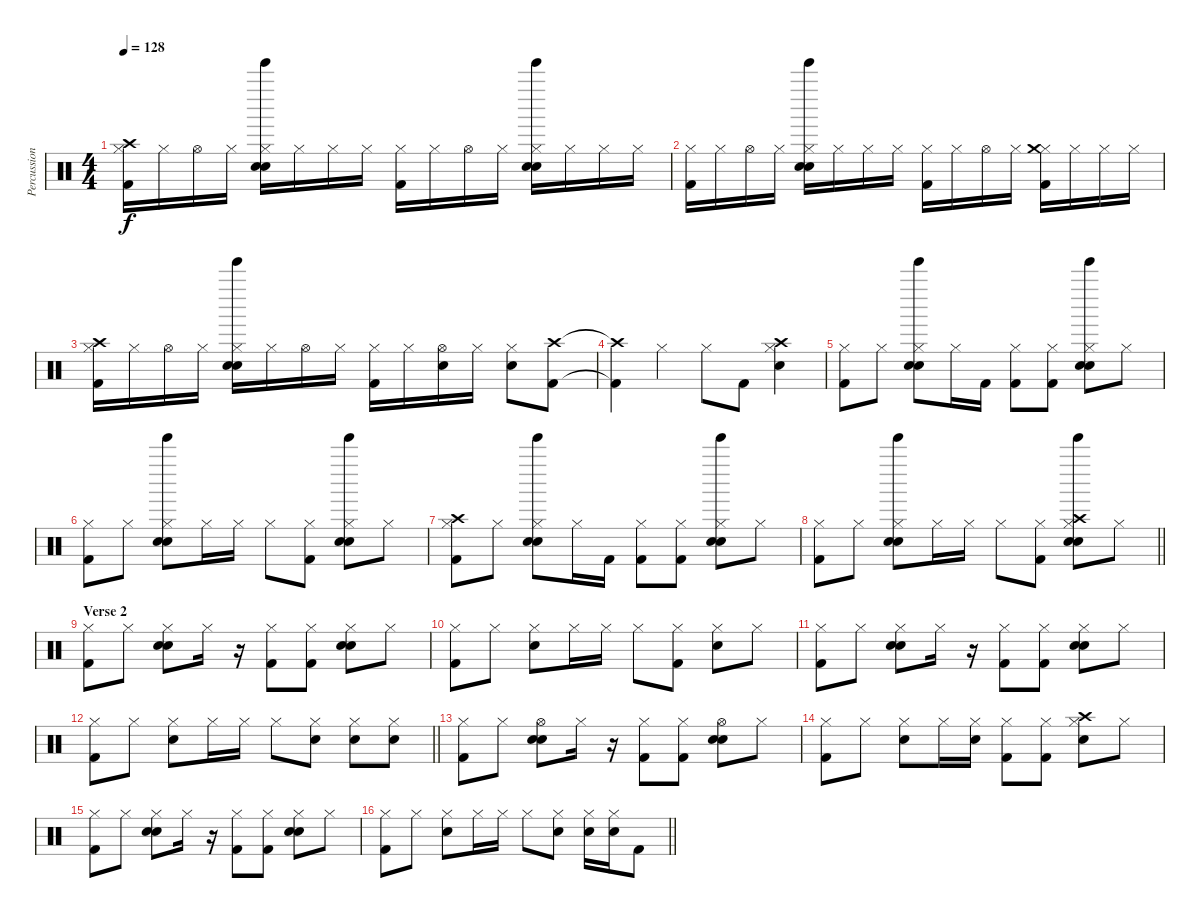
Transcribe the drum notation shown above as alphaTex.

\track ("Percussion" "Percussion") {instrument percussion}
\staff {score}
\articulation defaults
\ts (4 4)
\tempo 128
\clef neutral
\ks c
("Hi-Hat (closed)" "Crash high (hit)" "Kick (hit) 2").16{dy f} "Hi-Hat (closed)".16 "Hi-Hat (open)".16 "Hi-Hat (closed)".16 ("Hi-Hat (closed)" "Hand Clap (hit)" "Tinkle Bell (hit)" "Electric Snare (hit)").16 "Hi-Hat (closed)".16 "Hi-Hat (closed)".16 "Hi-Hat (closed)".16 ("Hi-Hat (closed)" "Kick (hit) 2").16 "Hi-Hat (closed)".16 "Hi-Hat (open)".16 "Hi-Hat (closed)".16 ("Hi-Hat (closed)" "Hand Clap (hit)" "Tinkle Bell (hit)" "Electric Snare (hit)").16 "Hi-Hat (closed)".16 "Hi-Hat (closed)".16 "Hi-Hat (closed)".16 |
("Hi-Hat (closed)" "Kick (hit) 2").16 "Hi-Hat (closed)".16 "Hi-Hat (open)".16 "Hi-Hat (closed)".16 ("Hi-Hat (closed)" "Hand Clap (hit)" "Tinkle Bell (hit)" "Electric Snare (hit)").16 "Hi-Hat (closed)".16 "Hi-Hat (closed)".16 "Hi-Hat (closed)".16 ("Hi-Hat (closed)" "Kick (hit) 2").16 "Hi-Hat (closed)".16 "Hi-Hat (open)".16 "Hi-Hat (closed)".16 ("Hi-Hat (closed)" "Crash medium (hit)" "Kick (hit) 2").16 "Hi-Hat (closed)".16 "Hi-Hat (closed)".16 "Hi-Hat (closed)".16 |
("Hi-Hat (closed)" "Crash high (hit)" "Kick (hit) 2").16 "Hi-Hat (closed)".16 "Hi-Hat (open)".16 "Hi-Hat (closed)".16 ("Hi-Hat (closed)" "Hand Clap (hit)" "Tinkle Bell (hit)" "Electric Snare (hit)").16 "Hi-Hat (closed)".16 "Hi-Hat (open)".16 "Hi-Hat (closed)".16 ("Hi-Hat (closed)" "Kick (hit) 2").16 "Hi-Hat (closed)".16 ("Hi-Hat (open)" "Electric Snare (hit)").16 "Hi-Hat (closed)".16 ("Hi-Hat (closed)" "Electric Snare (hit)").8 ("Crash high (hit)" "Kick (hit) 2").8 |
("Crash high (hit)"{t} "Kick (hit) 2"{t}).4 "Hi-Hat (closed)".4 "Hi-Hat (closed)".8 "Kick (hit) 2".8 ("Hi-Hat (closed)" "Crash high (hit)" "Electric Snare (hit)").4 |
("Hi-Hat (closed)" "Kick (hit) 2").8 "Hi-Hat (closed)".8 ("Hi-Hat (closed)" "Tinkle Bell (hit)" "Hand Clap (hit)" "Electric Snare (hit)").8 "Hi-Hat (closed)".16 "Kick (hit) 2".16 ("Hi-Hat (closed)" "Kick (hit) 2").8 ("Hi-Hat (closed)" "Kick (hit) 2").8 ("Hi-Hat (closed)" "Tinkle Bell (hit)" "Hand Clap (hit)" "Electric Snare (hit)").8 "Hi-Hat (closed)".8 |
("Hi-Hat (closed)" "Kick (hit) 2").8 "Hi-Hat (closed)".8 ("Hi-Hat (closed)" "Tinkle Bell (hit)" "Hand Clap (hit)" "Electric Snare (hit)").8 "Hi-Hat (closed)".16 "Hi-Hat (closed)".16 "Hi-Hat (closed)".8 ("Hi-Hat (closed)" "Kick (hit) 2").8 ("Hi-Hat (closed)" "Tinkle Bell (hit)" "Hand Clap (hit)" "Electric Snare (hit)").8 "Hi-Hat (closed)".8 |
("Hi-Hat (closed)" "Crash high (hit)" "Kick (hit) 2").8 "Hi-Hat (closed)".8 ("Hi-Hat (closed)" "Tinkle Bell (hit)" "Hand Clap (hit)" "Electric Snare (hit)").8 "Hi-Hat (closed)".16 "Kick (hit) 2".16 ("Hi-Hat (closed)" "Kick (hit) 2").8 ("Hi-Hat (closed)" "Kick (hit) 2").8 ("Hi-Hat (closed)" "Tinkle Bell (hit)" "Hand Clap (hit)" "Electric Snare (hit)").8 "Hi-Hat (closed)".8 |
\barLineRight lightlight
("Hi-Hat (closed)" "Kick (hit) 2").8 "Hi-Hat (closed)".8 ("Hi-Hat (closed)" "Tinkle Bell (hit)" "Hand Clap (hit)" "Electric Snare (hit)").8 "Hi-Hat (closed)".16 "Hi-Hat (closed)".16 "Hi-Hat (closed)".8 ("Hi-Hat (closed)" "Kick (hit) 2").8 ("Hi-Hat (closed)" "Tinkle Bell (hit)" "Hand Clap (hit)" "Electric Snare (hit)" "Crash high (hit)").8 "Hi-Hat (closed)".8 |
\section ("" "Verse 2")
("Hi-Hat (closed)" "Kick (hit) 2").8 "Hi-Hat (closed)".8 ("Hi-Hat (closed)" "Hand Clap (hit)" "Electric Snare (hit)").8 "Hi-Hat (closed)".16 r.16 ("Hi-Hat (closed)" "Kick (hit) 2").8 ("Hi-Hat (closed)" "Kick (hit) 2").8 ("Hi-Hat (closed)" "Hand Clap (hit)" "Electric Snare (hit)").8 "Hi-Hat (closed)".8 |
("Hi-Hat (closed)" "Kick (hit) 2").8 "Hi-Hat (closed)".8 ("Hi-Hat (closed)" "Electric Snare (hit)").8 "Hi-Hat (closed)".16 "Hi-Hat (closed)".16 "Hi-Hat (closed)".8 ("Hi-Hat (closed)" "Kick (hit) 2").8 ("Hi-Hat (closed)" "Electric Snare (hit)").8 "Hi-Hat (closed)".8 |
("Hi-Hat (closed)" "Kick (hit) 2").8 "Hi-Hat (closed)".8 ("Hi-Hat (closed)" "Hand Clap (hit)" "Electric Snare (hit)").8 "Hi-Hat (closed)".16 r.16 ("Hi-Hat (closed)" "Kick (hit) 2").8 ("Hi-Hat (closed)" "Kick (hit) 2").8 ("Hi-Hat (closed)" "Hand Clap (hit)" "Electric Snare (hit)").8 "Hi-Hat (closed)".8 |
\barLineRight lightlight
("Hi-Hat (closed)" "Kick (hit) 2").8 "Hi-Hat (closed)".8 ("Hi-Hat (closed)" "Electric Snare (hit)").8 "Hi-Hat (closed)".16 "Hi-Hat (closed)".16 "Hi-Hat (closed)".8 ("Hi-Hat (closed)" "Electric Snare (hit)").8 ("Hi-Hat (closed)" "Electric Snare (hit)").8 ("Hi-Hat (closed)" "Electric Snare (hit)").8 |
("Hi-Hat (closed)" "Kick (hit) 2").8 "Hi-Hat (closed)".8 ("Hi-Hat (open)" "Hand Clap (hit)" "Electric Snare (hit)").8 "Hi-Hat (closed)".16 r.16 ("Hi-Hat (closed)" "Kick (hit) 2").8 ("Hi-Hat (closed)" "Kick (hit) 2").8 ("Hi-Hat (open)" "Hand Clap (hit)" "Electric Snare (hit)").8 "Hi-Hat (closed)".8 |
("Hi-Hat (closed)" "Kick (hit) 2").8 "Hi-Hat (closed)".8 ("Hi-Hat (closed)" "Electric Snare (hit)").8 "Hi-Hat (closed)".16 ("Hi-Hat (closed)" "Electric Snare (hit)").16 ("Hi-Hat (closed)" "Kick (hit) 2").8 ("Hi-Hat (closed)" "Kick (hit) 2").8 ("Hi-Hat (closed)" "Crash high (hit)" "Electric Snare (hit)").8 "Hi-Hat (closed)".8 |
("Hi-Hat (closed)" "Kick (hit) 2").8 "Hi-Hat (closed)".8 ("Hi-Hat (closed)" "Hand Clap (hit)" "Electric Snare (hit)").8 "Hi-Hat (closed)".16 r.16 ("Hi-Hat (closed)" "Kick (hit) 2").8 ("Hi-Hat (closed)" "Kick (hit) 2").8 ("Hi-Hat (closed)" "Hand Clap (hit)" "Electric Snare (hit)").8 "Hi-Hat (closed)".8 |
\barLineRight lightlight
("Hi-Hat (closed)" "Kick (hit) 2").8 "Hi-Hat (closed)".8 ("Hi-Hat (closed)" "Electric Snare (hit)").8 "Hi-Hat (closed)".16 "Hi-Hat (closed)".16 "Hi-Hat (closed)".8 ("Hi-Hat (closed)" "Electric Snare (hit)").8 ("Hi-Hat (closed)" "Electric Snare (hit)").16 ("Hi-Hat (closed)" "Electric Snare (hit)").16 "Kick (hit) 2".8
